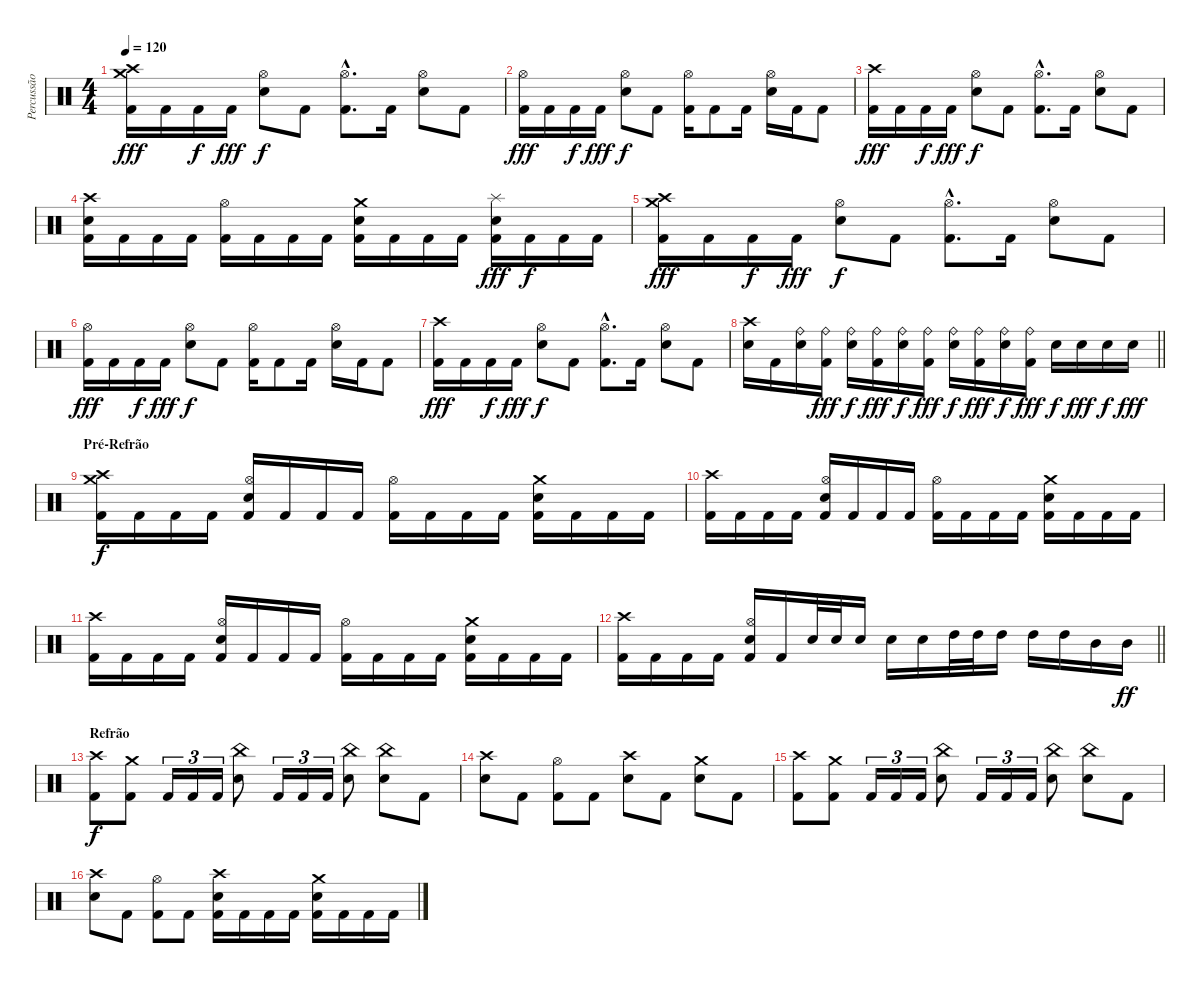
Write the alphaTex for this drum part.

\track ("Percussão" "Percussão") {instrument percussion}
\staff {score}
\articulation defaults
\ts (4 4)
\tempo 120
\clef neutral
\ks c
("Crash medium (hit)" "Crash high (hit)" "Kick (hit) 2").16{dy fff} "Kick (hit) 2".16 "Kick (hit) 2".16{dy f} "Kick (hit) 2".16{dy fff} ("Hi-Hat (open)" "Electric Snare (hit)").8{dy f} "Kick (hit) 2".8 ("Hi-Hat (open)"{hac} "Kick (hit) 2"{hac}).8{d} "Kick (hit) 2".16 ("Hi-Hat (open)" "Electric Snare (hit)").8 "Kick (hit) 2".8 |
("Hi-Hat (open)" "Kick (hit) 2").16{dy fff} "Kick (hit) 2".16 "Kick (hit) 2".16{dy f} "Kick (hit) 2".16{dy fff} ("Hi-Hat (open)" "Electric Snare (hit)").8{dy f} "Kick (hit) 2".8 ("Hi-Hat (open)" "Kick (hit) 2").16 "Kick (hit) 2".8 "Kick (hit) 2".16 ("Hi-Hat (open)" "Electric Snare (hit)").16 "Kick (hit) 2".16 "Kick (hit) 2".8 |
("Crash high (hit)" "Kick (hit) 2").16{dy fff} "Kick (hit) 2".16 "Kick (hit) 2".16{dy f} "Kick (hit) 2".16{dy fff} ("Hi-Hat (open)" "Electric Snare (hit)").8{dy f} "Kick (hit) 2".8 ("Hi-Hat (open)"{hac} "Kick (hit) 2"{hac}).8{d} "Kick (hit) 2".16 ("Hi-Hat (open)" "Electric Snare (hit)").8 "Kick (hit) 2".8 |
("Crash high (hit)" "Electric Snare (hit)" "Kick (hit) 2").16 "Kick (hit) 2".16 "Kick (hit) 2".16 "Kick (hit) 2".16 ("Hi-Hat (open)" "Kick (hit) 2").16 "Kick (hit) 2".16 "Kick (hit) 2".16 "Kick (hit) 2".16 ("Crash medium (hit)" "Electric Snare (hit)" "Kick (hit) 2").16 "Kick (hit) 2".16 "Kick (hit) 2".16 "Kick (hit) 2".16 ("Splash (hit)" "Electric Snare (hit)" "Kick (hit) 2").16{dy fff} "Kick (hit) 2".16{dy f} "Kick (hit) 2".16 "Kick (hit) 2".16 |
("Crash medium (hit)" "Crash high (hit)" "Kick (hit) 2").16{dy fff} "Kick (hit) 2".16 "Kick (hit) 2".16{dy f} "Kick (hit) 2".16{dy fff} ("Hi-Hat (open)" "Electric Snare (hit)").8{dy f} "Kick (hit) 2".8 ("Hi-Hat (open)"{hac} "Kick (hit) 2"{hac}).8{d} "Kick (hit) 2".16 ("Hi-Hat (open)" "Electric Snare (hit)").8 "Kick (hit) 2".8 |
("Hi-Hat (open)" "Kick (hit) 2").16{dy fff} "Kick (hit) 2".16 "Kick (hit) 2".16{dy f} "Kick (hit) 2".16{dy fff} ("Hi-Hat (open)" "Electric Snare (hit)").8{dy f} "Kick (hit) 2".8 ("Hi-Hat (open)" "Kick (hit) 2").16 "Kick (hit) 2".8 "Kick (hit) 2".16 ("Hi-Hat (open)" "Electric Snare (hit)").16 "Kick (hit) 2".16 "Kick (hit) 2".8 |
("Crash high (hit)" "Kick (hit) 2").16{dy fff} "Kick (hit) 2".16 "Kick (hit) 2".16{dy f} "Kick (hit) 2".16{dy fff} ("Hi-Hat (open)" "Electric Snare (hit)").8{dy f} "Kick (hit) 2".8 ("Hi-Hat (open)"{hac} "Kick (hit) 2"{hac}).8{d} "Kick (hit) 2".16 ("Hi-Hat (open)" "Electric Snare (hit)").8 "Kick (hit) 2".8 |
\barLineRight lightlight
("Crash high (hit)" "Electric Snare (hit)").16 "Kick (hit) 2".16 ("Ride (bell)" "Electric Snare (hit)").16 ("Ride (bell)" "Kick (hit) 2").16{dy fff} ("Ride (bell)" "Electric Snare (hit)").16{dy f} ("Ride (bell)" "Kick (hit) 2").16{dy fff} ("Ride (bell)" "Electric Snare (hit)").16{dy f} ("Ride (bell)" "Kick (hit) 2").16{dy fff} ("Ride (bell)" "Electric Snare (hit)").16{dy f} ("Ride (bell)" "Kick (hit) 2").16{dy fff} ("Ride (bell)" "Electric Snare (hit)").16{dy f} ("Ride (bell)" "Kick (hit) 2").16{dy fff} "Electric Snare (hit)".16{dy f} "Electric Snare (hit)".16{dy fff} "Electric Snare (hit)".16{dy f} "Electric Snare (hit)".16{dy fff} |
\section ("" "Pré-Refrão")
("Crash medium (hit)" "Crash high (hit)" "Kick (hit) 2").16{dy f} "Kick (hit) 2".16 "Kick (hit) 2".16 "Kick (hit) 2".16 ("Hi-Hat (open)" "Electric Snare (hit)" "Kick (hit) 2").16 "Kick (hit) 2".16 "Kick (hit) 2".16 "Kick (hit) 2".16 ("Hi-Hat (open)" "Kick (hit) 2").16 "Kick (hit) 2".16 "Kick (hit) 2".16 "Kick (hit) 2".16 ("Crash medium (hit)" "Electric Snare (hit)" "Kick (hit) 2").16 "Kick (hit) 2".16 "Kick (hit) 2".16 "Kick (hit) 2".16 |
("Crash high (hit)" "Kick (hit) 2").16 "Kick (hit) 2".16 "Kick (hit) 2".16 "Kick (hit) 2".16 ("Hi-Hat (open)" "Electric Snare (hit)" "Kick (hit) 2").16 "Kick (hit) 2".16 "Kick (hit) 2".16 "Kick (hit) 2".16 ("Hi-Hat (open)" "Kick (hit) 2").16 "Kick (hit) 2".16 "Kick (hit) 2".16 "Kick (hit) 2".16 ("Crash medium (hit)" "Electric Snare (hit)" "Kick (hit) 2").16 "Kick (hit) 2".16 "Kick (hit) 2".16 "Kick (hit) 2".16 |
("Crash high (hit)" "Kick (hit) 2").16 "Kick (hit) 2".16 "Kick (hit) 2".16 "Kick (hit) 2".16 ("Hi-Hat (open)" "Electric Snare (hit)" "Kick (hit) 2").16 "Kick (hit) 2".16 "Kick (hit) 2".16 "Kick (hit) 2".16 ("Hi-Hat (open)" "Kick (hit) 2").16 "Kick (hit) 2".16 "Kick (hit) 2".16 "Kick (hit) 2".16 ("Crash medium (hit)" "Electric Snare (hit)" "Kick (hit) 2").16 "Kick (hit) 2".16 "Kick (hit) 2".16 "Kick (hit) 2".16 |
\barLineRight lightlight
("Crash high (hit)" "Kick (hit) 2").16 "Kick (hit) 2".16 "Kick (hit) 2".16 "Kick (hit) 2".16 ("Hi-Hat (open)" "Electric Snare (hit)" "Kick (hit) 2").16 "Kick (hit) 2".16 "Electric Snare (hit)".32 "Electric Snare (hit)".32 "Electric Snare (hit)".16 "Electric Snare (hit)".16 "Electric Snare (hit)".16 "High Tom (hit)".32 "High Tom (hit)".32 "High Tom (hit)".16 "High Tom (hit)".16 "High Tom (hit)".16 "Mid Tom (hit)".16 "Mid Tom (hit)".16{dy ff} |
\section ("" "Refrão")
("Crash high (hit)" "Kick (hit) 2").8{dy f} ("Crash medium (hit)" "Kick (hit) 2").8 "Kick (hit) 2".16{tu (3 2)} "Kick (hit) 2".16{tu (3 2)} "Kick (hit) 2".16{tu (3 2)} ("China (hit)" "Electric Snare (hit)").8 "Kick (hit) 2".16{tu (3 2)} "Kick (hit) 2".16{tu (3 2)} "Kick (hit) 2".16{tu (3 2)} ("China (hit)" "Electric Snare (hit)").8 ("China (hit)" "Electric Snare (hit)").8 "Kick (hit) 2".8 |
("Crash high (hit)" "Electric Snare (hit)").8 "Kick (hit) 2".8 ("Hi-Hat (open)" "Kick (hit) 2").8 "Kick (hit) 2".8 ("Crash high (hit)" "Electric Snare (hit)").8 "Kick (hit) 2".8 ("Crash medium (hit)" "Electric Snare (hit)").8 "Kick (hit) 2".8 |
("Crash high (hit)" "Kick (hit) 2").8 ("Crash medium (hit)" "Kick (hit) 2").8 "Kick (hit) 2".16{tu (3 2)} "Kick (hit) 2".16{tu (3 2)} "Kick (hit) 2".16{tu (3 2)} ("China (hit)" "Electric Snare (hit)").8 "Kick (hit) 2".16{tu (3 2)} "Kick (hit) 2".16{tu (3 2)} "Kick (hit) 2".16{tu (3 2)} ("China (hit)" "Electric Snare (hit)").8 ("China (hit)" "Electric Snare (hit)").8 "Kick (hit) 2".8 |
("Crash high (hit)" "Electric Snare (hit)").8 "Kick (hit) 2".8 ("Hi-Hat (open)" "Kick (hit) 2").8 "Kick (hit) 2".8 ("Crash high (hit)" "Electric Snare (hit)" "Kick (hit) 2").16 "Kick (hit) 2".16 "Kick (hit) 2".16 "Kick (hit) 2".16 ("Crash medium (hit)" "Electric Snare (hit)" "Kick (hit) 2").16 "Kick (hit) 2".16 "Kick (hit) 2".16 "Kick (hit) 2".16
